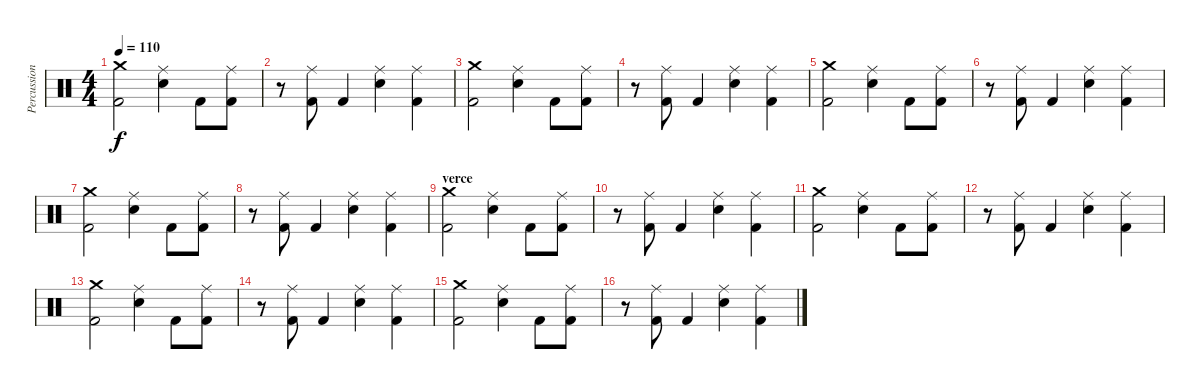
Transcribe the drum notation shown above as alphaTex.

\track ("Percussion" "Percussion") {instrument percussion}
\staff {score}
\articulation defaults
\ts (4 4)
\tempo 110
\clef neutral
\ks c
("Crash medium (hit)" "Kick (hit) 2").2{dy f} ("Ride (middle)" "Electric Snare (hit)").4 "Kick (hit) 2".8 ("Ride (middle)" "Kick (hit) 2").8 |
r.8 ("Ride (middle)" "Kick (hit) 2").8 "Kick (hit) 2".4 ("Ride (middle)" "Electric Snare (hit)").4 ("Ride (middle)" "Kick (hit) 2").4 |
("Crash medium (hit)" "Kick (hit) 2").2 ("Ride (middle)" "Electric Snare (hit)").4 "Kick (hit) 2".8 ("Ride (middle)" "Kick (hit) 2").8 |
r.8 ("Ride (middle)" "Kick (hit) 2").8 "Kick (hit) 2".4 ("Ride (middle)" "Electric Snare (hit)").4 ("Ride (middle)" "Kick (hit) 2").4 |
("Crash medium (hit)" "Kick (hit) 2").2 ("Ride (middle)" "Electric Snare (hit)").4 "Kick (hit) 2".8 ("Ride (middle)" "Kick (hit) 2").8 |
r.8 ("Ride (middle)" "Kick (hit) 2").8 "Kick (hit) 2".4 ("Ride (middle)" "Electric Snare (hit)").4 ("Ride (middle)" "Kick (hit) 2").4 |
("Crash medium (hit)" "Kick (hit) 2").2 ("Ride (middle)" "Electric Snare (hit)").4 "Kick (hit) 2".8 ("Ride (middle)" "Kick (hit) 2").8 |
r.8 ("Ride (middle)" "Kick (hit) 2").8 "Kick (hit) 2".4 ("Ride (middle)" "Electric Snare (hit)").4 ("Ride (middle)" "Kick (hit) 2").4 |
\section ("" "verce")
("Crash medium (hit)" "Kick (hit) 2").2 ("Ride (middle)" "Electric Snare (hit)").4 "Kick (hit) 2".8 ("Ride (middle)" "Kick (hit) 2").8 |
r.8 ("Ride (middle)" "Kick (hit) 2").8 "Kick (hit) 2".4 ("Ride (middle)" "Electric Snare (hit)").4 ("Ride (middle)" "Kick (hit) 2").4 |
("Crash medium (hit)" "Kick (hit) 2").2 ("Ride (middle)" "Electric Snare (hit)").4 "Kick (hit) 2".8 ("Ride (middle)" "Kick (hit) 2").8 |
r.8 ("Ride (middle)" "Kick (hit) 2").8 "Kick (hit) 2".4 ("Ride (middle)" "Electric Snare (hit)").4 ("Ride (middle)" "Kick (hit) 2").4 |
("Crash medium (hit)" "Kick (hit) 2").2 ("Ride (middle)" "Electric Snare (hit)").4 "Kick (hit) 2".8 ("Ride (middle)" "Kick (hit) 2").8 |
r.8 ("Ride (middle)" "Kick (hit) 2").8 "Kick (hit) 2".4 ("Ride (middle)" "Electric Snare (hit)").4 ("Ride (middle)" "Kick (hit) 2").4 |
("Crash medium (hit)" "Kick (hit) 2").2 ("Ride (middle)" "Electric Snare (hit)").4 "Kick (hit) 2".8 ("Ride (middle)" "Kick (hit) 2").8 |
r.8 ("Ride (middle)" "Kick (hit) 2").8 "Kick (hit) 2".4 ("Ride (middle)" "Electric Snare (hit)").4 ("Ride (middle)" "Kick (hit) 2").4
